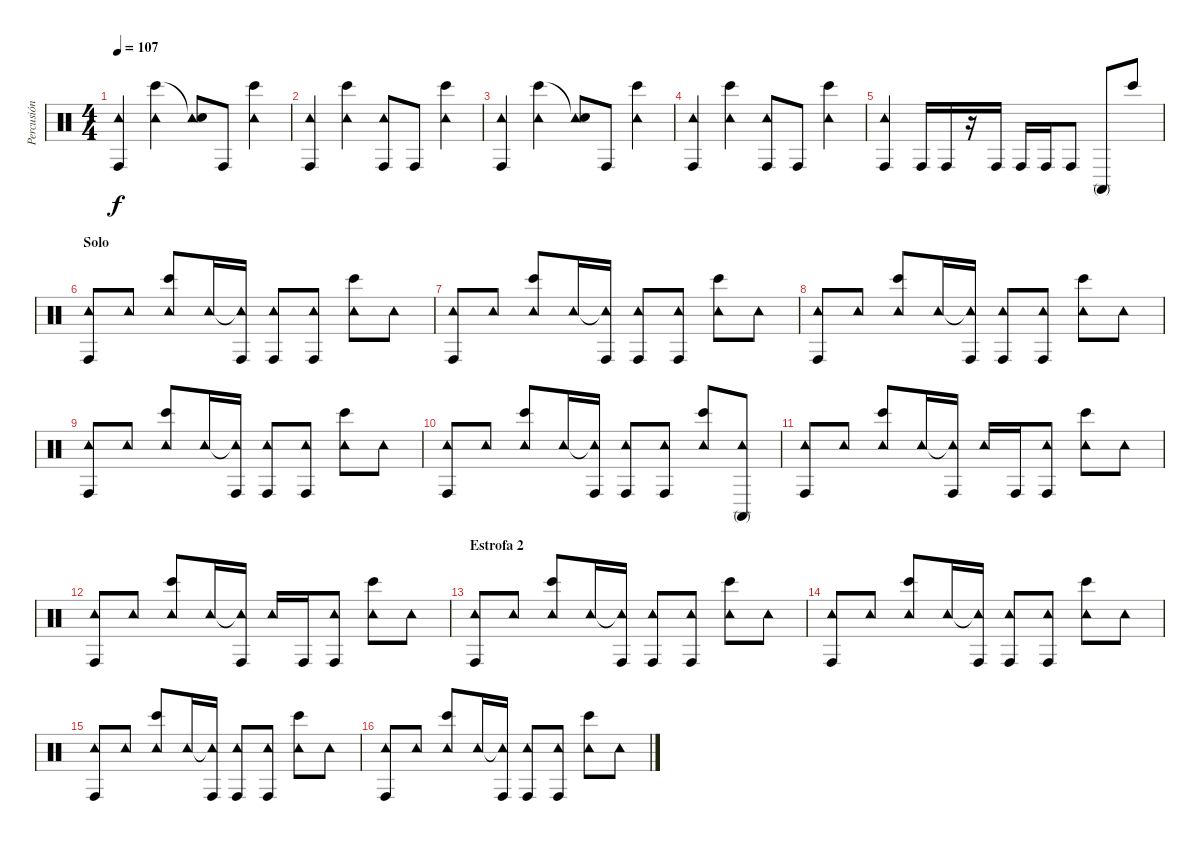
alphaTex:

\track ("Percusión" "Percusión") {instrument percussion}
\staff {score}
\articulation defaults
\ts (4 4)
\tempo 107
\clef neutral
\ks c
("Tambourine (hit)" "Conga high (hit)").4{dy f} ("Tambourine (hit)" "Bongo High (hit)").4 ("Tambourine (hit)" "Snare (hit)"{t}).8 "Conga high (hit)".8 ("Tambourine (hit)" "Bongo High (hit)").4 |
("Tambourine (hit)" "Conga high (hit)").4 ("Tambourine (hit)" "Bongo High (hit)").4 ("Tambourine (hit)" "Conga high (hit)").8 "Conga high (hit)".8 ("Tambourine (hit)" "Bongo High (hit)").4 |
("Tambourine (hit)" "Conga high (hit)").4 ("Tambourine (hit)" "Bongo High (hit)").4 ("Tambourine (hit)" "Snare (hit)"{t}).8 "Conga high (hit)".8 ("Tambourine (hit)" "Bongo High (hit)").4 |
("Tambourine (hit)" "Conga high (hit)").4 ("Tambourine (hit)" "Bongo High (hit)").4 ("Tambourine (hit)" "Conga high (hit)").8 "Conga high (hit)".8 ("Tambourine (hit)" "Bongo High (hit)").4 |
("Tambourine (hit)" "Conga high (hit)").4 "Conga high (hit)".16 "Conga high (hit)".16 r.16 "Conga high (hit)".16 "Conga high (hit)".16 "Conga high (hit)".16 "Conga high (hit)".8 "Conga high (mute)".8 "Bongo High (hit)".8 |
\section ("" "Solo")
("Tambourine (hit)" "Conga high (hit)").8 "Tambourine (hit)".8 ("Tambourine (hit)" "Bongo High (hit)").8 "Tambourine (hit)".16 ("Tambourine (hit)"{t} "Conga high (hit)").16 ("Tambourine (hit)" "Conga high (hit)").8 ("Tambourine (hit)" "Conga high (hit)").8 ("Tambourine (hit)" "Bongo High (hit)").8 "Tambourine (hit)".8 |
("Tambourine (hit)" "Conga high (hit)").8 "Tambourine (hit)".8 ("Tambourine (hit)" "Bongo High (hit)").8 "Tambourine (hit)".16 ("Tambourine (hit)"{t} "Conga high (hit)").16 ("Tambourine (hit)" "Conga high (hit)").8 ("Tambourine (hit)" "Conga high (hit)").8 ("Tambourine (hit)" "Bongo High (hit)").8 "Tambourine (hit)".8 |
("Tambourine (hit)" "Conga high (hit)").8 "Tambourine (hit)".8 ("Tambourine (hit)" "Bongo High (hit)").8 "Tambourine (hit)".16 ("Tambourine (hit)"{t} "Conga high (hit)").16 ("Tambourine (hit)" "Conga high (hit)").8 ("Tambourine (hit)" "Conga high (hit)").8 ("Tambourine (hit)" "Bongo High (hit)").8 "Tambourine (hit)".8 |
("Tambourine (hit)" "Conga high (hit)").8 "Tambourine (hit)".8 ("Tambourine (hit)" "Bongo High (hit)").8 "Tambourine (hit)".16 ("Tambourine (hit)"{t} "Conga high (hit)").16 ("Tambourine (hit)" "Conga high (hit)").8 ("Tambourine (hit)" "Conga high (hit)").8 ("Tambourine (hit)" "Bongo High (hit)").8 "Tambourine (hit)".8 |
("Tambourine (hit)" "Conga high (hit)").8 "Tambourine (hit)".8 ("Tambourine (hit)" "Bongo High (hit)").8 "Tambourine (hit)".16 ("Tambourine (hit)"{t} "Conga high (hit)").16 ("Tambourine (hit)" "Conga high (hit)").8 ("Tambourine (hit)" "Conga high (hit)").8 ("Tambourine (hit)" "Bongo High (hit)").8 ("Tambourine (hit)" "Conga high (mute)").8 |
("Tambourine (hit)" "Conga high (hit)").8 "Tambourine (hit)".8 ("Tambourine (hit)" "Bongo High (hit)").8 "Tambourine (hit)".16 ("Tambourine (hit)"{t} "Conga high (hit)").16 "Tambourine (hit)".16 "Conga high (hit)".16 ("Tambourine (hit)" "Conga high (hit)").8 ("Tambourine (hit)" "Bongo High (hit)").8 "Tambourine (hit)".8 |
("Tambourine (hit)" "Conga high (hit)").8 "Tambourine (hit)".8 ("Tambourine (hit)" "Bongo High (hit)").8 "Tambourine (hit)".16 ("Tambourine (hit)"{t} "Conga high (hit)").16 "Tambourine (hit)".16 "Conga high (hit)".16 ("Tambourine (hit)" "Conga high (hit)").8 ("Tambourine (hit)" "Bongo High (hit)").8 "Tambourine (hit)".8 |
\section ("" "Estrofa 2")
("Tambourine (hit)" "Conga high (hit)").8 "Tambourine (hit)".8 ("Tambourine (hit)" "Bongo High (hit)").8 "Tambourine (hit)".16 ("Tambourine (hit)"{t} "Conga high (hit)").16 ("Tambourine (hit)" "Conga high (hit)").8 ("Tambourine (hit)" "Conga high (hit)").8 ("Tambourine (hit)" "Bongo High (hit)").8 "Tambourine (hit)".8 |
("Tambourine (hit)" "Conga high (hit)").8 "Tambourine (hit)".8 ("Tambourine (hit)" "Bongo High (hit)").8 "Tambourine (hit)".16 ("Tambourine (hit)"{t} "Conga high (hit)").16 ("Tambourine (hit)" "Conga high (hit)").8 ("Tambourine (hit)" "Conga high (hit)").8 ("Tambourine (hit)" "Bongo High (hit)").8 "Tambourine (hit)".8 |
("Tambourine (hit)" "Conga high (hit)").8 "Tambourine (hit)".8 ("Tambourine (hit)" "Bongo High (hit)").8 "Tambourine (hit)".16 ("Tambourine (hit)"{t} "Conga high (hit)").16 ("Tambourine (hit)" "Conga high (hit)").8 ("Tambourine (hit)" "Conga high (hit)").8 ("Tambourine (hit)" "Bongo High (hit)").8 "Tambourine (hit)".8 |
("Tambourine (hit)" "Conga high (hit)").8 "Tambourine (hit)".8 ("Tambourine (hit)" "Bongo High (hit)").8 "Tambourine (hit)".16 ("Tambourine (hit)"{t} "Conga high (hit)").16 ("Tambourine (hit)" "Conga high (hit)").8 ("Tambourine (hit)" "Conga high (hit)").8 ("Tambourine (hit)" "Bongo High (hit)").8 "Tambourine (hit)".8
